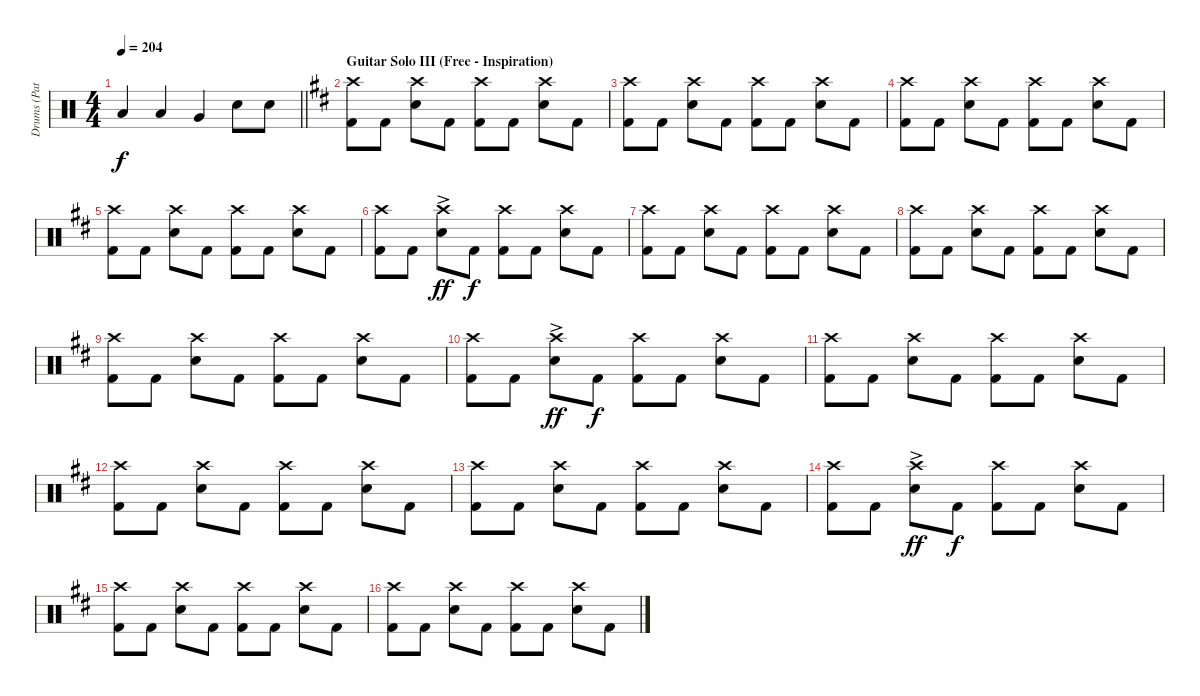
\track ("Drums (Patrick Johansson)" "Drums (Pat") {instrument percussion}
\staff {score}
\articulation defaults
\ts (4 4)
\tempo 204
\clef neutral
\barLineRight lightlight
\ks c "Low Tom (hit)".4{dy f} "Low Tom (hit)".4 "Very Low Tom (hit)".4 "Electric Snare (hit)".8 "Electric Snare (hit)".8
|
\section ("" "Guitar Solo III (Free - Inspiration)")
\ks d
("Crash high (hit)" "Kick (hit) 2").8 "Kick (hit) 2".8 ("Crash high (hit)" "Electric Snare (hit)").8 "Kick (hit) 2".8 ("Crash high (hit)" "Kick (hit) 2").8 "Kick (hit) 2".8 ("Crash high (hit)" "Electric Snare (hit)").8 "Kick (hit) 2".8 |
("Crash high (hit)" "Kick (hit) 2").8 "Kick (hit) 2".8 ("Crash high (hit)" "Electric Snare (hit)").8 "Kick (hit) 2".8 ("Crash high (hit)" "Kick (hit) 2").8 "Kick (hit) 2".8 ("Crash high (hit)" "Electric Snare (hit)").8 "Kick (hit) 2".8 |
("Crash high (hit)" "Kick (hit) 2").8 "Kick (hit) 2".8 ("Crash high (hit)" "Electric Snare (hit)").8 "Kick (hit) 2".8 ("Crash high (hit)" "Kick (hit) 2").8 "Kick (hit) 2".8 ("Crash high (hit)" "Electric Snare (hit)").8 "Kick (hit) 2".8 |
("Crash high (hit)" "Kick (hit) 2").8 "Kick (hit) 2".8 ("Crash high (hit)" "Electric Snare (hit)").8 "Kick (hit) 2".8 ("Crash high (hit)" "Kick (hit) 2").8 "Kick (hit) 2".8 ("Crash high (hit)" "Electric Snare (hit)").8 "Kick (hit) 2".8 |
("Crash high (hit)" "Kick (hit) 2").8 "Kick (hit) 2".8 ("Crash high (hit)"{ac} "Electric Snare (hit)").8{dy ff} "Kick (hit) 2".8{dy f} ("Crash high (hit)" "Kick (hit) 2").8 "Kick (hit) 2".8 ("Crash high (hit)" "Electric Snare (hit)").8 "Kick (hit) 2".8 |
("Crash high (hit)" "Kick (hit) 2").8 "Kick (hit) 2".8 ("Crash high (hit)" "Electric Snare (hit)").8 "Kick (hit) 2".8 ("Crash high (hit)" "Kick (hit) 2").8 "Kick (hit) 2".8 ("Crash high (hit)" "Electric Snare (hit)").8 "Kick (hit) 2".8 |
("Crash high (hit)" "Kick (hit) 2").8 "Kick (hit) 2".8 ("Crash high (hit)" "Electric Snare (hit)").8 "Kick (hit) 2".8 ("Crash high (hit)" "Kick (hit) 2").8 "Kick (hit) 2".8 ("Crash high (hit)" "Electric Snare (hit)").8 "Kick (hit) 2".8 |
("Crash high (hit)" "Kick (hit) 2").8 "Kick (hit) 2".8 ("Crash high (hit)" "Electric Snare (hit)").8 "Kick (hit) 2".8 ("Crash high (hit)" "Kick (hit) 2").8 "Kick (hit) 2".8 ("Crash high (hit)" "Electric Snare (hit)").8 "Kick (hit) 2".8 |
("Crash high (hit)" "Kick (hit) 2").8 "Kick (hit) 2".8 ("Crash high (hit)"{ac} "Electric Snare (hit)").8{dy ff} "Kick (hit) 2".8{dy f} ("Crash high (hit)" "Kick (hit) 2").8 "Kick (hit) 2".8 ("Crash high (hit)" "Electric Snare (hit)").8 "Kick (hit) 2".8 |
("Crash high (hit)" "Kick (hit) 2").8 "Kick (hit) 2".8 ("Crash high (hit)" "Electric Snare (hit)").8 "Kick (hit) 2".8 ("Crash high (hit)" "Kick (hit) 2").8 "Kick (hit) 2".8 ("Crash high (hit)" "Electric Snare (hit)").8 "Kick (hit) 2".8 |
("Crash high (hit)" "Kick (hit) 2").8 "Kick (hit) 2".8 ("Crash high (hit)" "Electric Snare (hit)").8 "Kick (hit) 2".8 ("Crash high (hit)" "Kick (hit) 2").8 "Kick (hit) 2".8 ("Crash high (hit)" "Electric Snare (hit)").8 "Kick (hit) 2".8 |
("Crash high (hit)" "Kick (hit) 2").8 "Kick (hit) 2".8 ("Crash high (hit)" "Electric Snare (hit)").8 "Kick (hit) 2".8 ("Crash high (hit)" "Kick (hit) 2").8 "Kick (hit) 2".8 ("Crash high (hit)" "Electric Snare (hit)").8 "Kick (hit) 2".8 |
("Crash high (hit)" "Kick (hit) 2").8 "Kick (hit) 2".8 ("Crash high (hit)"{ac} "Electric Snare (hit)").8{dy ff} "Kick (hit) 2".8{dy f} ("Crash high (hit)" "Kick (hit) 2").8 "Kick (hit) 2".8 ("Crash high (hit)" "Electric Snare (hit)").8 "Kick (hit) 2".8 |
("Crash high (hit)" "Kick (hit) 2").8 "Kick (hit) 2".8 ("Crash high (hit)" "Electric Snare (hit)").8 "Kick (hit) 2".8 ("Crash high (hit)" "Kick (hit) 2").8 "Kick (hit) 2".8 ("Crash high (hit)" "Electric Snare (hit)").8 "Kick (hit) 2".8 |
("Crash high (hit)" "Kick (hit) 2").8 "Kick (hit) 2".8 ("Crash high (hit)" "Electric Snare (hit)").8 "Kick (hit) 2".8 ("Crash high (hit)" "Kick (hit) 2").8 "Kick (hit) 2".8 ("Crash high (hit)" "Electric Snare (hit)").8 "Kick (hit) 2".8
